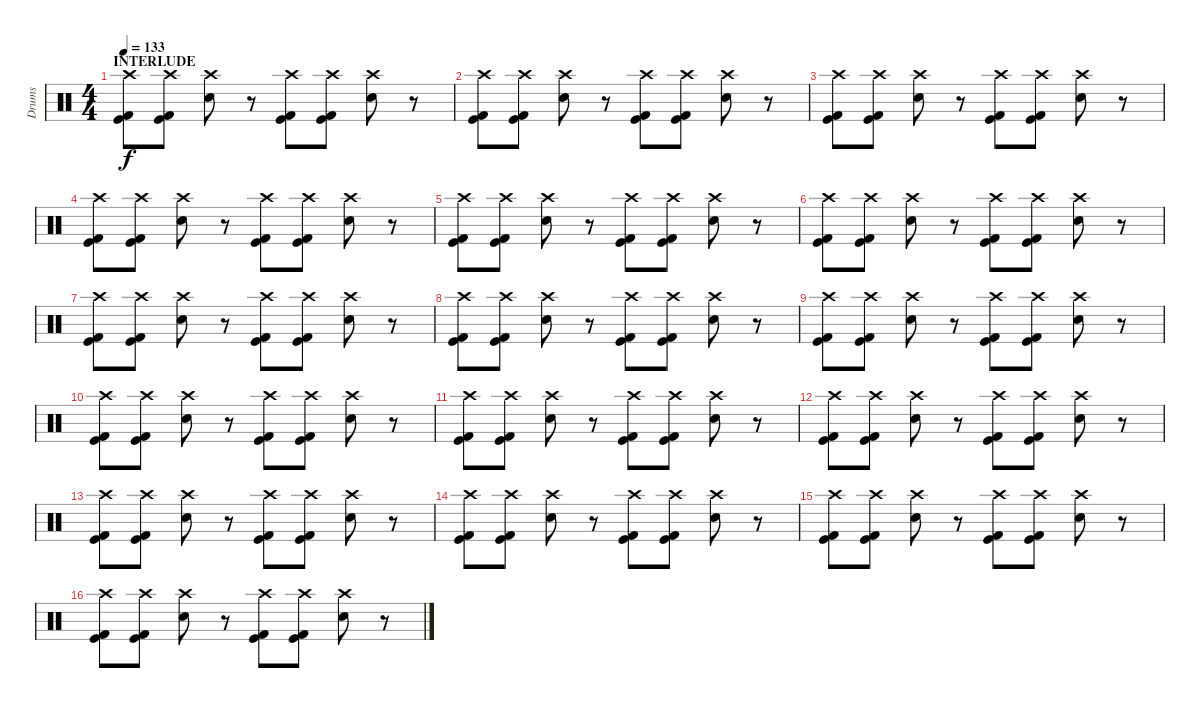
\track ("Drums" "Drums") {instrument percussion}
\staff {score}
\articulation defaults
\ts (4 4)
\section ("" "INTERLUDE")
\tempo 133
\clef neutral
\ks c
("Crash high (hit)" "Kick (hit) 2" "Kick (hit)").8{dy f} ("Crash high (hit)" "Kick (hit) 2" "Kick (hit)").8 ("Crash high (hit)" "Electric Snare (hit)").8 r.8 ("Crash high (hit)" "Kick (hit) 2" "Kick (hit)").8 ("Crash high (hit)" "Kick (hit) 2" "Kick (hit)").8 ("Crash high (hit)" "Electric Snare (hit)").8 r.8 |
("Crash high (hit)" "Kick (hit) 2" "Kick (hit)").8 ("Crash high (hit)" "Kick (hit) 2" "Kick (hit)").8 ("Crash high (hit)" "Electric Snare (hit)").8 r.8 ("Crash high (hit)" "Kick (hit) 2" "Kick (hit)").8 ("Crash high (hit)" "Kick (hit) 2" "Kick (hit)").8 ("Crash high (hit)" "Electric Snare (hit)").8 r.8 |
("Crash high (hit)" "Kick (hit) 2" "Kick (hit)").8 ("Crash high (hit)" "Kick (hit) 2" "Kick (hit)").8 ("Crash high (hit)" "Electric Snare (hit)").8 r.8 ("Crash high (hit)" "Kick (hit) 2" "Kick (hit)").8 ("Crash high (hit)" "Kick (hit) 2" "Kick (hit)").8 ("Crash high (hit)" "Electric Snare (hit)").8 r.8 |
("Crash high (hit)" "Kick (hit) 2" "Kick (hit)").8 ("Crash high (hit)" "Kick (hit) 2" "Kick (hit)").8 ("Crash high (hit)" "Electric Snare (hit)").8 r.8 ("Crash high (hit)" "Kick (hit) 2" "Kick (hit)").8 ("Crash high (hit)" "Kick (hit) 2" "Kick (hit)").8 ("Crash high (hit)" "Electric Snare (hit)").8 r.8 |
("Crash high (hit)" "Kick (hit) 2" "Kick (hit)").8 ("Crash high (hit)" "Kick (hit) 2" "Kick (hit)").8 ("Crash high (hit)" "Electric Snare (hit)").8 r.8 ("Crash high (hit)" "Kick (hit) 2" "Kick (hit)").8 ("Crash high (hit)" "Kick (hit) 2" "Kick (hit)").8 ("Crash high (hit)" "Electric Snare (hit)").8 r.8 |
("Crash high (hit)" "Kick (hit) 2" "Kick (hit)").8 ("Crash high (hit)" "Kick (hit) 2" "Kick (hit)").8 ("Crash high (hit)" "Electric Snare (hit)").8 r.8 ("Crash high (hit)" "Kick (hit) 2" "Kick (hit)").8 ("Crash high (hit)" "Kick (hit) 2" "Kick (hit)").8 ("Crash high (hit)" "Electric Snare (hit)").8 r.8 |
("Crash high (hit)" "Kick (hit) 2" "Kick (hit)").8 ("Crash high (hit)" "Kick (hit) 2" "Kick (hit)").8 ("Crash high (hit)" "Electric Snare (hit)").8 r.8 ("Crash high (hit)" "Kick (hit) 2" "Kick (hit)").8 ("Crash high (hit)" "Kick (hit) 2" "Kick (hit)").8 ("Crash high (hit)" "Electric Snare (hit)").8 r.8 |
("Crash high (hit)" "Kick (hit) 2" "Kick (hit)").8 ("Crash high (hit)" "Kick (hit) 2" "Kick (hit)").8 ("Crash high (hit)" "Electric Snare (hit)").8 r.8 ("Crash high (hit)" "Kick (hit) 2" "Kick (hit)").8 ("Crash high (hit)" "Kick (hit) 2" "Kick (hit)").8 ("Crash high (hit)" "Electric Snare (hit)").8 r.8 |
("Crash high (hit)" "Kick (hit) 2" "Kick (hit)").8 ("Crash high (hit)" "Kick (hit) 2" "Kick (hit)").8 ("Crash high (hit)" "Electric Snare (hit)").8 r.8 ("Crash high (hit)" "Kick (hit) 2" "Kick (hit)").8 ("Crash high (hit)" "Kick (hit) 2" "Kick (hit)").8 ("Crash high (hit)" "Electric Snare (hit)").8 r.8 |
("Crash high (hit)" "Kick (hit) 2" "Kick (hit)").8 ("Crash high (hit)" "Kick (hit) 2" "Kick (hit)").8 ("Crash high (hit)" "Electric Snare (hit)").8 r.8 ("Crash high (hit)" "Kick (hit) 2" "Kick (hit)").8 ("Crash high (hit)" "Kick (hit) 2" "Kick (hit)").8 ("Crash high (hit)" "Electric Snare (hit)").8 r.8 |
("Crash high (hit)" "Kick (hit) 2" "Kick (hit)").8 ("Crash high (hit)" "Kick (hit) 2" "Kick (hit)").8 ("Crash high (hit)" "Electric Snare (hit)").8 r.8 ("Crash high (hit)" "Kick (hit) 2" "Kick (hit)").8 ("Crash high (hit)" "Kick (hit) 2" "Kick (hit)").8 ("Crash high (hit)" "Electric Snare (hit)").8 r.8 |
("Crash high (hit)" "Kick (hit) 2" "Kick (hit)").8 ("Crash high (hit)" "Kick (hit) 2" "Kick (hit)").8 ("Crash high (hit)" "Electric Snare (hit)").8 r.8 ("Crash high (hit)" "Kick (hit) 2" "Kick (hit)").8 ("Crash high (hit)" "Kick (hit) 2" "Kick (hit)").8 ("Crash high (hit)" "Electric Snare (hit)").8 r.8 |
("Crash high (hit)" "Kick (hit) 2" "Kick (hit)").8 ("Crash high (hit)" "Kick (hit) 2" "Kick (hit)").8 ("Crash high (hit)" "Electric Snare (hit)").8 r.8 ("Crash high (hit)" "Kick (hit) 2" "Kick (hit)").8 ("Crash high (hit)" "Kick (hit) 2" "Kick (hit)").8 ("Crash high (hit)" "Electric Snare (hit)").8 r.8 |
("Crash high (hit)" "Kick (hit) 2" "Kick (hit)").8 ("Crash high (hit)" "Kick (hit) 2" "Kick (hit)").8 ("Crash high (hit)" "Electric Snare (hit)").8 r.8 ("Crash high (hit)" "Kick (hit) 2" "Kick (hit)").8 ("Crash high (hit)" "Kick (hit) 2" "Kick (hit)").8 ("Crash high (hit)" "Electric Snare (hit)").8 r.8 |
("Crash high (hit)" "Kick (hit) 2" "Kick (hit)").8 ("Crash high (hit)" "Kick (hit) 2" "Kick (hit)").8 ("Crash high (hit)" "Electric Snare (hit)").8 r.8 ("Crash high (hit)" "Kick (hit) 2" "Kick (hit)").8 ("Crash high (hit)" "Kick (hit) 2" "Kick (hit)").8 ("Crash high (hit)" "Electric Snare (hit)").8 r.8 |
("Crash high (hit)" "Kick (hit) 2" "Kick (hit)").8 ("Crash high (hit)" "Kick (hit) 2" "Kick (hit)").8 ("Crash high (hit)" "Electric Snare (hit)").8 r.8 ("Crash high (hit)" "Kick (hit) 2" "Kick (hit)").8 ("Crash high (hit)" "Kick (hit) 2" "Kick (hit)").8 ("Crash high (hit)" "Electric Snare (hit)").8 r.8
